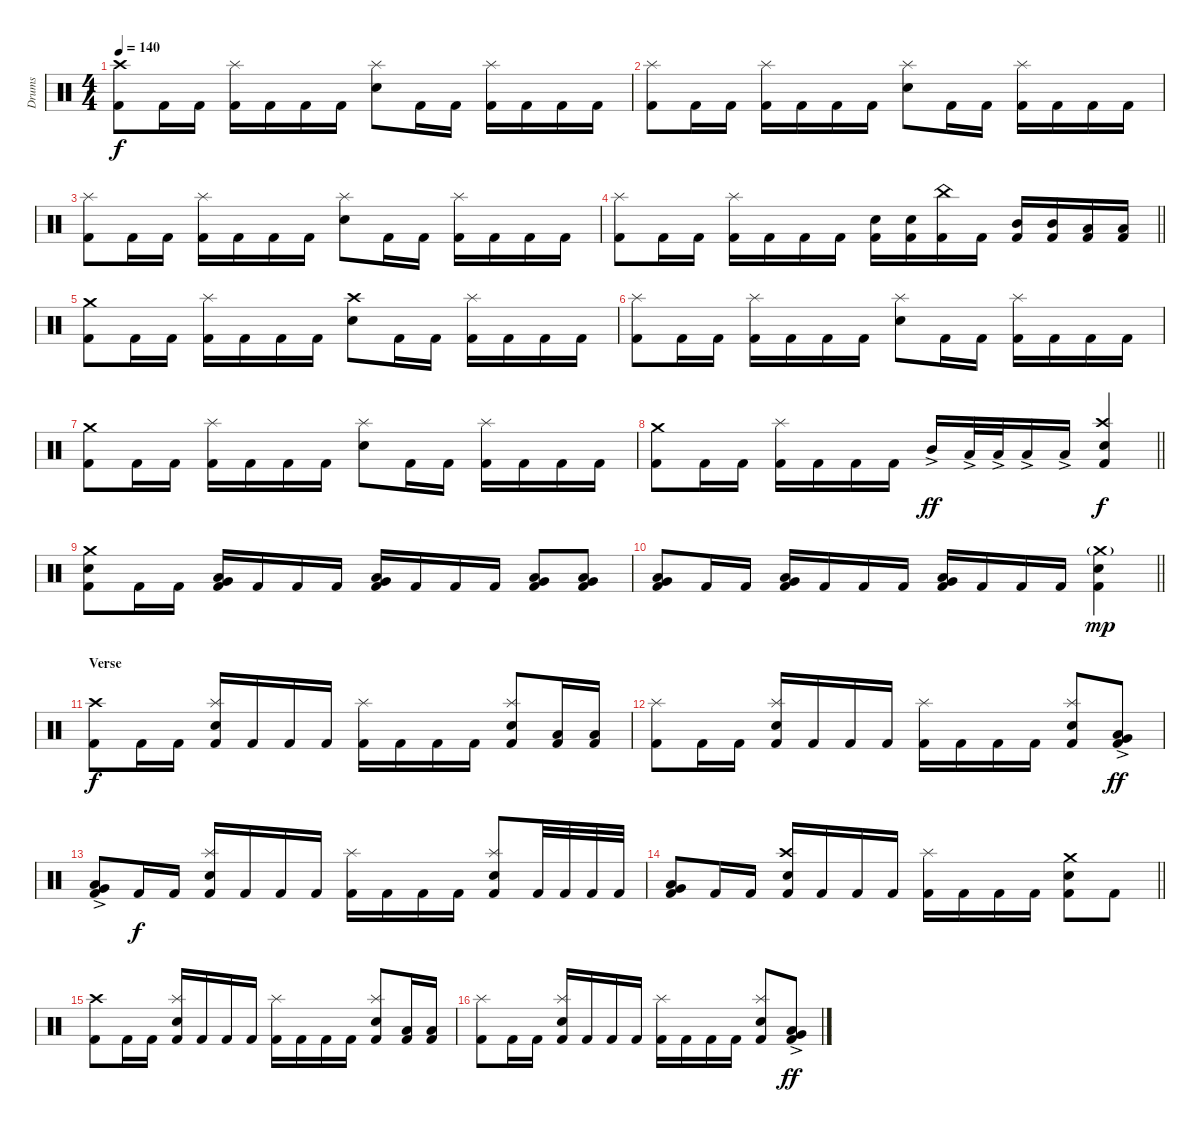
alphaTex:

\track ("Drums" "Drums") {instrument percussion}
\staff {score}
\articulation defaults
\ts (4 4)
\section ("" "")
\tempo 140
\clef neutral
\ks c
("Kick (hit) 2" "Crash high (hit)").8{dy f} "Kick (hit) 2".16 "Kick (hit) 2".16 ("Kick (hit) 2" "Splash (hit)").16 "Kick (hit) 2".16 "Kick (hit) 2".16 "Kick (hit) 2".16 ("Snare (hit) 2" "Splash (hit)").8 "Kick (hit) 2".16 "Kick (hit) 2".16 ("Kick (hit) 2" "Splash (hit)").16 "Kick (hit) 2".16 "Kick (hit) 2".16 "Kick (hit) 2".16 |
("Kick (hit) 2" "Splash (hit)").8 "Kick (hit) 2".16 "Kick (hit) 2".16 ("Kick (hit) 2" "Splash (hit)").16 "Kick (hit) 2".16 "Kick (hit) 2".16 "Kick (hit) 2".16 ("Snare (hit) 2" "Splash (hit)").8 "Kick (hit) 2".16 "Kick (hit) 2".16 ("Kick (hit) 2" "Splash (hit)").16 "Kick (hit) 2".16 "Kick (hit) 2".16 "Kick (hit) 2".16 |
("Kick (hit) 2" "Splash (hit)").8 "Kick (hit) 2".16 "Kick (hit) 2".16 ("Kick (hit) 2" "Splash (hit)").16 "Kick (hit) 2".16 "Kick (hit) 2".16 "Kick (hit) 2".16 ("Snare (hit) 2" "Splash (hit)").8 "Kick (hit) 2".16 "Kick (hit) 2".16 ("Kick (hit) 2" "Splash (hit)").16 "Kick (hit) 2".16 "Kick (hit) 2".16 "Kick (hit) 2".16 |
\barLineRight lightlight
("Kick (hit) 2" "Splash (hit)").8 "Kick (hit) 2".16 "Kick (hit) 2".16 ("Kick (hit) 2" "Splash (hit)").16 "Kick (hit) 2".16 "Kick (hit) 2".16 "Kick (hit) 2".16 ("Kick (hit) 2" "Snare (hit) 2").16 ("Kick (hit) 2" "Snare (hit) 2").16 ("Kick (hit) 2" "China (hit)").16 "Kick (hit) 2".16 ("Kick (hit) 2" "Mid Tom (hit)").16 ("Kick (hit) 2" "Mid Tom (hit)").16 ("Kick (hit) 2" "Low Tom (hit)").16 ("Kick (hit) 2" "Low Tom (hit)").16 |
\section ("" "")
("Kick (hit) 2" "Crash medium (hit)").8 "Kick (hit) 2".16 "Kick (hit) 2".16 ("Kick (hit) 2" "Splash (hit)").16 "Kick (hit) 2".16 "Kick (hit) 2".16 "Kick (hit) 2".16 ("Snare (hit) 2" "Crash high (hit)").8 "Kick (hit) 2".16 "Kick (hit) 2".16 ("Kick (hit) 2" "Splash (hit)").16 "Kick (hit) 2".16 "Kick (hit) 2".16 "Kick (hit) 2".16 |
("Kick (hit) 2" "Splash (hit)").8 "Kick (hit) 2".16 "Kick (hit) 2".16 ("Kick (hit) 2" "Splash (hit)").16 "Kick (hit) 2".16 "Kick (hit) 2".16 "Kick (hit) 2".16 ("Snare (hit) 2" "Splash (hit)").8 "Kick (hit) 2".16 "Kick (hit) 2".16 ("Kick (hit) 2" "Splash (hit)").16 "Kick (hit) 2".16 "Kick (hit) 2".16 "Kick (hit) 2".16 |
("Kick (hit) 2" "Crash medium (hit)").8 "Kick (hit) 2".16 "Kick (hit) 2".16 ("Kick (hit) 2" "Splash (hit)").16 "Kick (hit) 2".16 "Kick (hit) 2".16 "Kick (hit) 2".16 ("Snare (hit) 2" "Splash (hit)").8 "Kick (hit) 2".16 "Kick (hit) 2".16 ("Kick (hit) 2" "Splash (hit)").16 "Kick (hit) 2".16 "Kick (hit) 2".16 "Kick (hit) 2".16 |
\barLineRight lightlight
("Kick (hit) 2" "Crash medium (hit)").8 "Kick (hit) 2".16 "Kick (hit) 2".16 ("Kick (hit) 2" "Splash (hit)").16 "Kick (hit) 2".16 "Kick (hit) 2".16 "Kick (hit) 2".16 "Mid Tom (hit)"{ac}.16{dy ff} "Low Tom (hit)"{ac}.32 "Low Tom (hit)"{ac}.32 "Low Tom (hit)"{ac}.16 "Low Tom (hit)"{ac}.16 ("Kick (hit) 2" "Snare (hit) 2" "Crash high (hit)").4{dy f} |
\section ("" "")
("Kick (hit) 2" "Snare (hit) 2" "Crash medium (hit)").8 "Kick (hit) 2".16 "Kick (hit) 2".16 ("Kick (hit) 2" "Very Low Tom (hit)" "Low Floor Tom (hit)").16 "Kick (hit) 2".16 "Kick (hit) 2".16 "Kick (hit) 2".16 ("Kick (hit) 2" "Very Low Tom (hit)" "Low Floor Tom (hit)").16 "Kick (hit) 2".16 "Kick (hit) 2".16 "Kick (hit) 2".16 ("Kick (hit) 2" "Very Low Tom (hit)" "Low Floor Tom (hit)").8 ("Kick (hit) 2" "Very Low Tom (hit)" "Low Floor Tom (hit)").8 |
\barLineRight lightlight
("Kick (hit) 2" "Very Low Tom (hit)" "Low Floor Tom (hit)").8 "Kick (hit) 2".16 "Kick (hit) 2".16 ("Kick (hit) 2" "Very Low Tom (hit)" "Low Floor Tom (hit)").16 "Kick (hit) 2".16 "Kick (hit) 2".16 "Kick (hit) 2".16 ("Kick (hit) 2" "Very Low Tom (hit)" "Low Floor Tom (hit)").16 "Kick (hit) 2".16 "Kick (hit) 2".16 "Kick (hit) 2".16 ("Kick (hit) 2" "Snare (hit) 2" "Crash medium (hit)"{g}).4{dy mp} |
\section ("" "Verse")
("Kick (hit) 2" "Crash high (hit)").8{dy f} "Kick (hit) 2".16 "Kick (hit) 2".16 ("Kick (hit) 2" "Snare (hit) 2" "Splash (hit)").16 "Kick (hit) 2".16 "Kick (hit) 2".16 "Kick (hit) 2".16 ("Kick (hit) 2" "Splash (hit)").16 "Kick (hit) 2".16 "Kick (hit) 2".16 "Kick (hit) 2".16 ("Kick (hit) 2" "Snare (hit) 2" "Splash (hit)").8 ("Kick (hit) 2" "Low Tom (hit)").16 ("Kick (hit) 2" "Low Tom (hit)").16 |
("Kick (hit) 2" "Splash (hit)").8 "Kick (hit) 2".16 "Kick (hit) 2".16 ("Kick (hit) 2" "Snare (hit) 2" "Splash (hit)").16 "Kick (hit) 2".16 "Kick (hit) 2".16 "Kick (hit) 2".16 ("Kick (hit) 2" "Splash (hit)").16 "Kick (hit) 2".16 "Kick (hit) 2".16 "Kick (hit) 2".16 ("Kick (hit) 2" "Snare (hit) 2" "Splash (hit)").8 ("Kick (hit) 2" "Low Tom (hit)"{ac} "Very Low Tom (hit)"{ac}).8{dy ff} |
("Kick (hit) 2" "Very Low Tom (hit)"{ac} "Low Floor Tom (hit)"{ac}).8 "Kick (hit) 2".16{dy f} "Kick (hit) 2".16 ("Kick (hit) 2" "Snare (hit) 2" "Splash (hit)").16 "Kick (hit) 2".16 "Kick (hit) 2".16 "Kick (hit) 2".16 ("Kick (hit) 2" "Splash (hit)").16 "Kick (hit) 2".16 "Kick (hit) 2".16 "Kick (hit) 2".16 ("Kick (hit) 2" "Snare (hit) 2" "Splash (hit)").8 "Kick (hit) 2".32 "Kick (hit) 2".32 "Kick (hit) 2".32 "Kick (hit) 2".32 |
\barLineRight lightlight
("Kick (hit) 2" "Very Low Tom (hit)" "Low Floor Tom (hit)").8 "Kick (hit) 2".16 "Kick (hit) 2".16 ("Kick (hit) 2" "Snare (hit) 2" "Crash high (hit)").16 "Kick (hit) 2".16 "Kick (hit) 2".16 "Kick (hit) 2".16 ("Kick (hit) 2" "Splash (hit)").16 "Kick (hit) 2".16 "Kick (hit) 2".16 "Kick (hit) 2".16 ("Kick (hit) 2" "Snare (hit) 2" "Crash medium (hit)").8 "Kick (hit) 2".8 |
\section ("" "")
("Kick (hit) 2" "Crash high (hit)").8 "Kick (hit) 2".16 "Kick (hit) 2".16 ("Kick (hit) 2" "Snare (hit) 2" "Splash (hit)").16 "Kick (hit) 2".16 "Kick (hit) 2".16 "Kick (hit) 2".16 ("Kick (hit) 2" "Splash (hit)").16 "Kick (hit) 2".16 "Kick (hit) 2".16 "Kick (hit) 2".16 ("Kick (hit) 2" "Snare (hit) 2" "Splash (hit)").8 ("Kick (hit) 2" "Low Tom (hit)").16 ("Kick (hit) 2" "Low Tom (hit)").16 |
("Kick (hit) 2" "Splash (hit)").8 "Kick (hit) 2".16 "Kick (hit) 2".16 ("Kick (hit) 2" "Snare (hit) 2" "Splash (hit)").16 "Kick (hit) 2".16 "Kick (hit) 2".16 "Kick (hit) 2".16 ("Kick (hit) 2" "Splash (hit)").16 "Kick (hit) 2".16 "Kick (hit) 2".16 "Kick (hit) 2".16 ("Kick (hit) 2" "Snare (hit) 2" "Splash (hit)").8 ("Kick (hit) 2" "Low Tom (hit)"{ac} "Very Low Tom (hit)"{ac}).8{dy ff}
